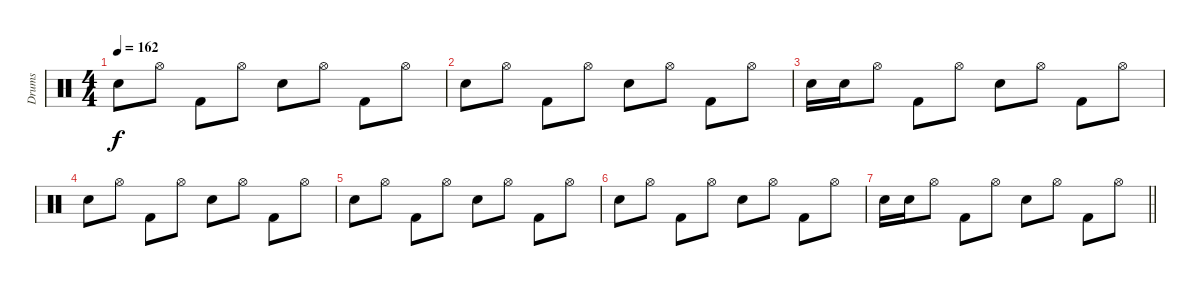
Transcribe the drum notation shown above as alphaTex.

\track ("Drums" "Drums") {instrument percussion}
\staff {score}
\articulation defaults
\ts (4 4)
\tempo 162
\clef neutral
\ks c "Electric Snare (hit)".8{dy f} "Hi-Hat (open)".8 "Kick (hit) 2".8 "Hi-Hat (open)".8 "Electric Snare (hit)".8 "Hi-Hat (open)".8 "Kick (hit) 2".8 "Hi-Hat (open)".8
|
"Electric Snare (hit)".8 "Hi-Hat (open)".8 "Kick (hit) 2".8 "Hi-Hat (open)".8 "Electric Snare (hit)".8 "Hi-Hat (open)".8 "Kick (hit) 2".8 "Hi-Hat (open)".8 |
"Electric Snare (hit)".16 "Electric Snare (hit)".16 "Hi-Hat (open)".8 "Kick (hit) 2".8 "Hi-Hat (open)".8 "Electric Snare (hit)".8 "Hi-Hat (open)".8 "Kick (hit) 2".8 "Hi-Hat (open)".8 |
"Electric Snare (hit)".8 "Hi-Hat (open)".8 "Kick (hit) 2".8 "Hi-Hat (open)".8 "Electric Snare (hit)".8 "Hi-Hat (open)".8 "Kick (hit) 2".8 "Hi-Hat (open)".8 |
"Electric Snare (hit)".8 "Hi-Hat (open)".8 "Kick (hit) 2".8 "Hi-Hat (open)".8 "Electric Snare (hit)".8 "Hi-Hat (open)".8 "Kick (hit) 2".8 "Hi-Hat (open)".8 |
"Electric Snare (hit)".8 "Hi-Hat (open)".8 "Kick (hit) 2".8 "Hi-Hat (open)".8 "Electric Snare (hit)".8 "Hi-Hat (open)".8 "Kick (hit) 2".8 "Hi-Hat (open)".8 |
\barLineRight lightlight "Electric Snare (hit)".16 "Electric Snare (hit)".16 "Hi-Hat (open)".8 "Kick (hit) 2".8 "Hi-Hat (open)".8 "Electric Snare (hit)".8 "Hi-Hat (open)".8 "Kick (hit) 2".8 "Hi-Hat (open)".8
